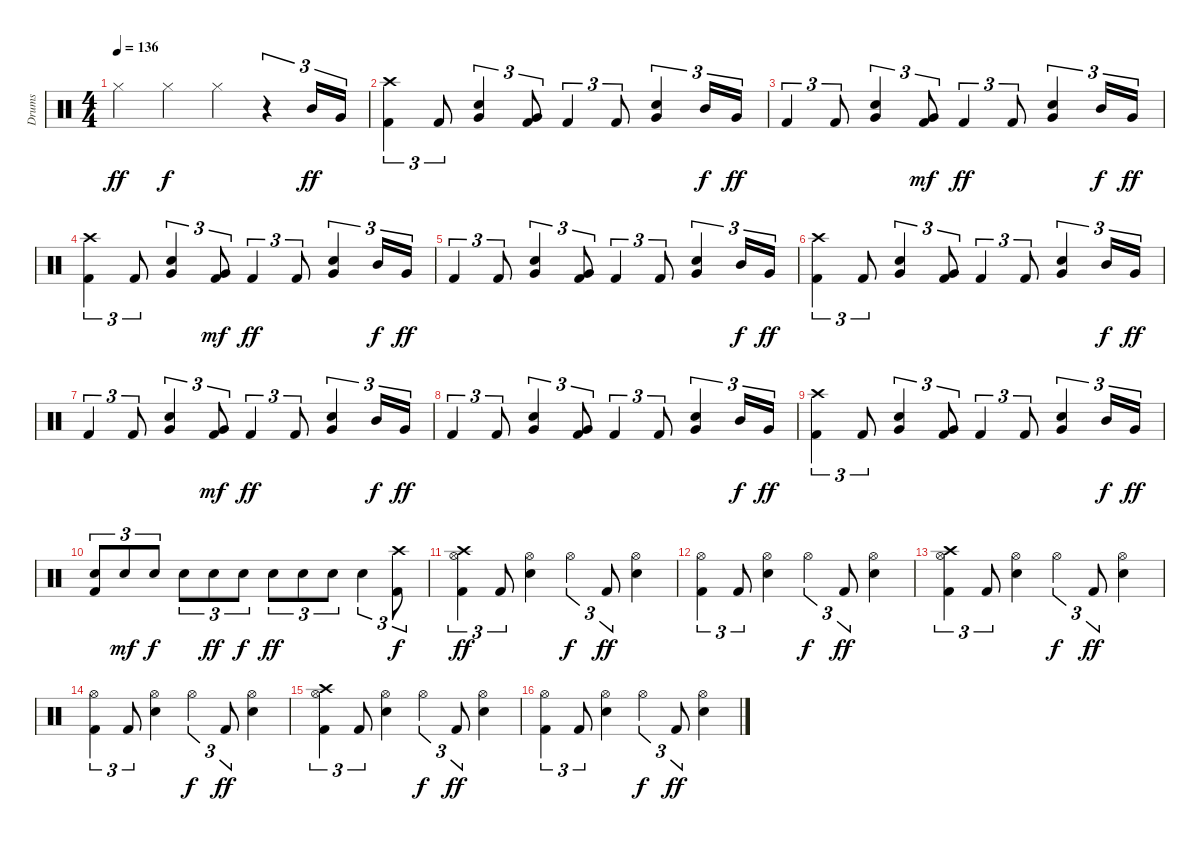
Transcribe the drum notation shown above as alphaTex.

\track ("Drums" "Drums") {instrument percussion}
\staff {score}
\articulation defaults
\ts (4 4)
\tempo 136
\clef neutral
\ks c "Hi-Hat (closed)".4{dy ff} "Hi-Hat (closed)".4{dy f} "Hi-Hat (closed)".4
r.4{tu (3 2)} "Mid Tom (hit)".16{tu (3 2) dy ff} "Very Low Tom (hit)".16{tu (3 2)} |
("Crash high (hit)" "Kick (hit) 2").4{tu (3 2)} "Kick (hit) 2".8{tu (3 2)} ("Snare (hit) 2" "Very Low Tom (hit)").4{tu (3 2)} ("Kick (hit) 2" "Very Low Tom (hit)").8{tu (3 2)} "Kick (hit) 2".4{tu (3 2)} "Kick (hit) 2".8{tu (3 2)} ("Snare (hit) 2" "Very Low Tom (hit)").4{tu (3 2)} "Mid Tom (hit)".16{tu (3 2) dy f} "Very Low Tom (hit)".16{tu (3 2) dy ff} |
"Kick (hit) 2".4{tu (3 2)} "Kick (hit) 2".8{tu (3 2)} ("Very Low Tom (hit)" "Snare (hit) 2").4{tu (3 2)} ("Kick (hit) 2" "Very Low Tom (hit)").8{tu (3 2) dy mf} "Kick (hit) 2".4{tu (3 2) dy ff} "Kick (hit) 2".8{tu (3 2)} ("Very Low Tom (hit)" "Snare (hit) 2").4{tu (3 2)} "Mid Tom (hit)".16{tu (3 2) dy f} "Very Low Tom (hit)".16{tu (3 2) dy ff} |
("Crash high (hit)" "Kick (hit) 2").4{tu (3 2)} "Kick (hit) 2".8{tu (3 2)} ("Snare (hit) 2" "Very Low Tom (hit)").4{tu (3 2)} ("Kick (hit) 2" "Very Low Tom (hit)").8{tu (3 2) dy mf} "Kick (hit) 2".4{tu (3 2) dy ff} "Kick (hit) 2".8{tu (3 2)} ("Snare (hit) 2" "Very Low Tom (hit)").4{tu (3 2)} "Mid Tom (hit)".16{tu (3 2) dy f} "Very Low Tom (hit)".16{tu (3 2) dy ff} |
"Kick (hit) 2".4{tu (3 2)} "Kick (hit) 2".8{tu (3 2)} ("Very Low Tom (hit)" "Snare (hit) 2").4{tu (3 2)} ("Kick (hit) 2" "Very Low Tom (hit)").8{tu (3 2)} "Kick (hit) 2".4{tu (3 2)} "Kick (hit) 2".8{tu (3 2)} ("Snare (hit) 2" "Very Low Tom (hit)").4{tu (3 2)} "Mid Tom (hit)".16{tu (3 2) dy f} "Very Low Tom (hit)".16{tu (3 2) dy ff} |
("Crash high (hit)" "Kick (hit) 2").4{tu (3 2)} "Kick (hit) 2".8{tu (3 2)} ("Snare (hit) 2" "Very Low Tom (hit)").4{tu (3 2)} ("Kick (hit) 2" "Very Low Tom (hit)").8{tu (3 2)} "Kick (hit) 2".4{tu (3 2)} "Kick (hit) 2".8{tu (3 2)} ("Snare (hit) 2" "Very Low Tom (hit)").4{tu (3 2)} "Mid Tom (hit)".16{tu (3 2) dy f} "Very Low Tom (hit)".16{tu (3 2) dy ff} |
"Kick (hit) 2".4{tu (3 2)} "Kick (hit) 2".8{tu (3 2)} ("Very Low Tom (hit)" "Snare (hit) 2").4{tu (3 2)} ("Kick (hit) 2" "Very Low Tom (hit)").8{tu (3 2) dy mf} "Kick (hit) 2".4{tu (3 2) dy ff} "Kick (hit) 2".8{tu (3 2)} ("Very Low Tom (hit)" "Snare (hit) 2").4{tu (3 2)} "Mid Tom (hit)".16{tu (3 2) dy f} "Very Low Tom (hit)".16{tu (3 2) dy ff} |
"Kick (hit) 2".4{tu (3 2)} "Kick (hit) 2".8{tu (3 2)} ("Very Low Tom (hit)" "Snare (hit) 2").4{tu (3 2)} ("Kick (hit) 2" "Very Low Tom (hit)").8{tu (3 2)} "Kick (hit) 2".4{tu (3 2)} "Kick (hit) 2".8{tu (3 2)} ("Snare (hit) 2" "Very Low Tom (hit)").4{tu (3 2)} "Mid Tom (hit)".16{tu (3 2) dy f} "Very Low Tom (hit)".16{tu (3 2) dy ff} |
("Crash high (hit)" "Kick (hit) 2").4{tu (3 2)} "Kick (hit) 2".8{tu (3 2)} ("Snare (hit) 2" "Very Low Tom (hit)").4{tu (3 2)} ("Kick (hit) 2" "Very Low Tom (hit)").8{tu (3 2)} "Kick (hit) 2".4{tu (3 2)} "Kick (hit) 2".8{tu (3 2)} ("Snare (hit) 2" "Very Low Tom (hit)").4{tu (3 2)} "Mid Tom (hit)".16{tu (3 2) dy f} "Very Low Tom (hit)".16{tu (3 2) dy ff} |
("Snare (hit) 2" "Kick (hit) 2").8{tu (3 2)} "Snare (hit) 2".8{tu (3 2) dy mf} "Snare (hit) 2".8{tu (3 2) dy f} "Snare (hit) 2".8{tu (3 2)} "Snare (hit) 2".8{tu (3 2) dy ff} "Snare (hit) 2".8{tu (3 2) dy f} "Snare (hit) 2".8{tu (3 2) dy ff} "Snare (hit) 2".8{tu (3 2)} "Snare (hit) 2".8{tu (3 2)} "Snare (hit) 2".4{tu (3 2)} ("Crash high (hit)" "Kick (hit) 2").8{tu (3 2) dy f} |
("Kick (hit) 2" "Hi-Hat (open)" "Crash high (hit)").4{tu (3 2) dy ff} "Kick (hit) 2".8{tu (3 2)} ("Snare (hit) 2" "Hi-Hat (open)").4 "Hi-Hat (open)".4{tu (3 2) dy f} "Kick (hit) 2".8{tu (3 2) dy ff} ("Snare (hit) 2" "Hi-Hat (open)").4 |
("Hi-Hat (open)" "Kick (hit) 2").4{tu (3 2)} "Kick (hit) 2".8{tu (3 2)} ("Hi-Hat (open)" "Snare (hit) 2").4 "Hi-Hat (open)".4{tu (3 2) dy f} "Kick (hit) 2".8{tu (3 2) dy ff} ("Snare (hit) 2" "Hi-Hat (open)").4 |
("Hi-Hat (open)" "Kick (hit) 2" "Crash high (hit)").4{tu (3 2)} "Kick (hit) 2".8{tu (3 2)} ("Snare (hit) 2" "Hi-Hat (open)").4 "Hi-Hat (open)".4{tu (3 2) dy f} "Kick (hit) 2".8{tu (3 2) dy ff} ("Snare (hit) 2" "Hi-Hat (open)").4 |
("Hi-Hat (open)" "Kick (hit) 2").4{tu (3 2)} "Kick (hit) 2".8{tu (3 2)} ("Snare (hit) 2" "Hi-Hat (open)").4 "Hi-Hat (open)".4{tu (3 2) dy f} "Kick (hit) 2".8{tu (3 2) dy ff} ("Snare (hit) 2" "Hi-Hat (open)").4 |
("Crash high (hit)" "Hi-Hat (open)" "Kick (hit) 2").4{tu (3 2)} "Kick (hit) 2".8{tu (3 2)} ("Hi-Hat (open)" "Snare (hit) 2").4 "Hi-Hat (open)".4{tu (3 2) dy f} "Kick (hit) 2".8{tu (3 2) dy ff} ("Snare (hit) 2" "Hi-Hat (open)").4 |
("Kick (hit) 2" "Hi-Hat (open)").4{tu (3 2)} "Kick (hit) 2".8{tu (3 2)} ("Snare (hit) 2" "Hi-Hat (open)").4 "Hi-Hat (open)".4{tu (3 2) dy f} "Kick (hit) 2".8{tu (3 2) dy ff} ("Snare (hit) 2" "Hi-Hat (open)").4
